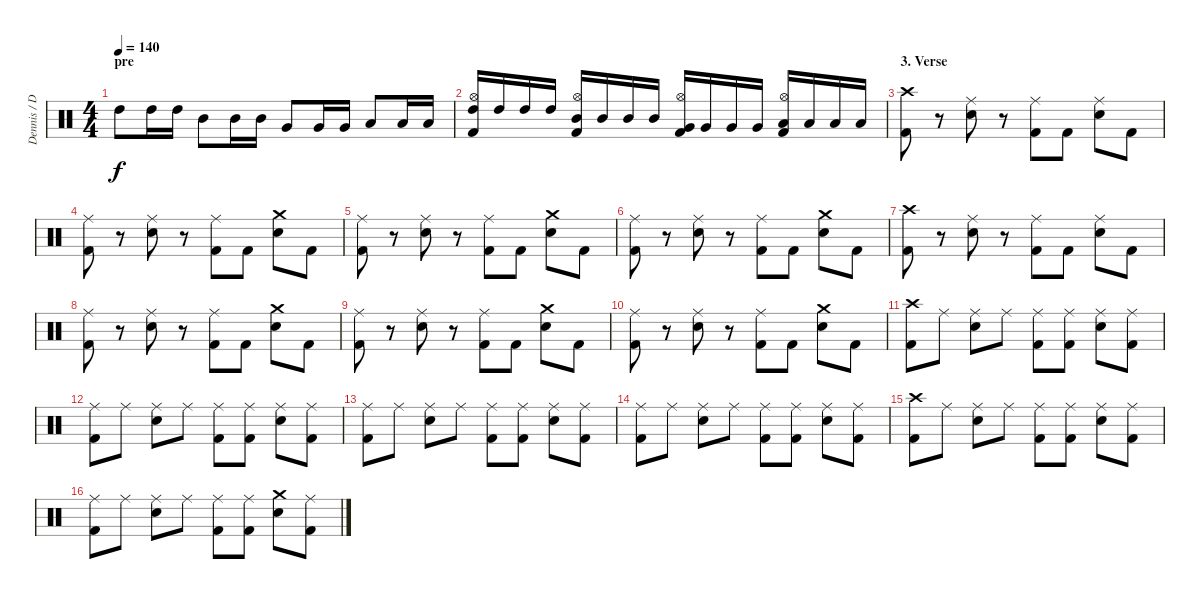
\track ("Dennis / Drums" "Dennis / D") {instrument percussion}
\staff {score}
\articulation defaults
\ts (4 4)
\section ("" "pre")
\tempo 140
\clef neutral
\ks c "High Tom (hit)".8{dy f} "High Tom (hit)".16 "High Tom (hit)".16 "Mid Tom (hit)".8 "Mid Tom (hit)".16 "Mid Tom (hit)".16 "Very Low Tom (hit)".8 "Very Low Tom (hit)".16 "Very Low Tom (hit)".16 "Low Tom (hit)".8 "Low Tom (hit)".16 "Low Tom (hit)".16
|
("Hi-Hat (open)" "Kick (hit) 2" "High Tom (hit)").16 "High Tom (hit)".16 "High Tom (hit)".16 "High Tom (hit)".16 ("Hi-Hat (open)" "Kick (hit) 2" "Mid Tom (hit)").16 "Mid Tom (hit)".16 "Mid Tom (hit)".16 "Mid Tom (hit)".16 ("Hi-Hat (open)" "Kick (hit) 2" "Very Low Tom (hit)").16 "Very Low Tom (hit)".16 "Very Low Tom (hit)".16 "Very Low Tom (hit)".16 ("Hi-Hat (open)" "Kick (hit) 2" "Low Tom (hit)").16 "Low Tom (hit)".16 "Low Tom (hit)".16 "Low Tom (hit)".16 |
\section ("" "3. Verse")
("Crash high (hit)" "Kick (hit) 2").8 r.8 ("Ride (middle)" "Electric Snare (hit)").8 r.8 ("Ride (middle)" "Kick (hit) 2").8 "Kick (hit) 2".8 ("Ride (middle)" "Electric Snare (hit)").8 "Kick (hit) 2".8 |
("Ride (middle)" "Kick (hit) 2").8 r.8 ("Ride (middle)" "Electric Snare (hit)").8 r.8 ("Ride (middle)" "Kick (hit) 2").8 "Kick (hit) 2".8 ("Crash medium (hit)" "Electric Snare (hit)").8 "Kick (hit) 2".8 |
("Ride (middle)" "Kick (hit) 2").8 r.8 ("Ride (middle)" "Electric Snare (hit)").8 r.8 ("Ride (middle)" "Kick (hit) 2").8 "Kick (hit) 2".8 ("Crash medium (hit)" "Electric Snare (hit)").8 "Kick (hit) 2".8 |
("Ride (middle)" "Kick (hit) 2").8 r.8 ("Ride (middle)" "Electric Snare (hit)").8 r.8 ("Ride (middle)" "Kick (hit) 2").8 "Kick (hit) 2".8 ("Crash medium (hit)" "Electric Snare (hit)").8 "Kick (hit) 2".8 |
("Crash high (hit)" "Kick (hit) 2").8 r.8 ("Ride (middle)" "Electric Snare (hit)").8 r.8 ("Ride (middle)" "Kick (hit) 2").8 "Kick (hit) 2".8 ("Ride (middle)" "Electric Snare (hit)").8 "Kick (hit) 2".8 |
("Ride (middle)" "Kick (hit) 2").8 r.8 ("Ride (middle)" "Electric Snare (hit)").8 r.8 ("Ride (middle)" "Kick (hit) 2").8 "Kick (hit) 2".8 ("Crash medium (hit)" "Electric Snare (hit)").8 "Kick (hit) 2".8 |
("Ride (middle)" "Kick (hit) 2").8 r.8 ("Ride (middle)" "Electric Snare (hit)").8 r.8 ("Ride (middle)" "Kick (hit) 2").8 "Kick (hit) 2".8 ("Crash medium (hit)" "Electric Snare (hit)").8 "Kick (hit) 2".8 |
("Ride (middle)" "Kick (hit) 2").8 r.8 ("Ride (middle)" "Electric Snare (hit)").8 r.8 ("Ride (middle)" "Kick (hit) 2").8 "Kick (hit) 2".8 ("Crash medium (hit)" "Electric Snare (hit)").8 "Kick (hit) 2".8 |
("Crash high (hit)" "Kick (hit) 2").8 "Ride (middle)".8 ("Ride (middle)" "Electric Snare (hit)").8 "Ride (middle)".8 ("Ride (middle)" "Kick (hit) 2").8 ("Ride (middle)" "Kick (hit) 2").8 ("Ride (middle)" "Electric Snare (hit)").8 ("Ride (middle)" "Kick (hit) 2").8 |
("Ride (middle)" "Kick (hit) 2").8 "Ride (middle)".8 ("Ride (middle)" "Electric Snare (hit)").8 "Ride (middle)".8 ("Ride (middle)" "Kick (hit) 2").8 ("Ride (middle)" "Kick (hit) 2").8 ("Ride (middle)" "Electric Snare (hit)").8 ("Ride (middle)" "Kick (hit) 2").8 |
("Ride (middle)" "Kick (hit) 2").8 "Ride (middle)".8 ("Ride (middle)" "Electric Snare (hit)").8 "Ride (middle)".8 ("Ride (middle)" "Kick (hit) 2").8 ("Ride (middle)" "Kick (hit) 2").8 ("Ride (middle)" "Electric Snare (hit)").8 ("Ride (middle)" "Kick (hit) 2").8 |
("Ride (middle)" "Kick (hit) 2").8 "Ride (middle)".8 ("Ride (middle)" "Electric Snare (hit)").8 "Ride (middle)".8 ("Ride (middle)" "Kick (hit) 2").8 ("Ride (middle)" "Kick (hit) 2").8 ("Ride (middle)" "Electric Snare (hit)").8 ("Ride (middle)" "Kick (hit) 2").8 |
("Crash high (hit)" "Kick (hit) 2").8 "Ride (middle)".8 ("Ride (middle)" "Electric Snare (hit)").8 "Ride (middle)".8 ("Ride (middle)" "Kick (hit) 2").8 ("Ride (middle)" "Kick (hit) 2").8 ("Ride (middle)" "Electric Snare (hit)").8 ("Ride (middle)" "Kick (hit) 2").8 |
("Ride (middle)" "Kick (hit) 2").8 "Ride (middle)".8 ("Ride (middle)" "Electric Snare (hit)").8 "Ride (middle)".8 ("Ride (middle)" "Kick (hit) 2").8 ("Ride (middle)" "Kick (hit) 2").8 ("Crash medium (hit)" "Electric Snare (hit)").8 ("Ride (middle)" "Kick (hit) 2").8
